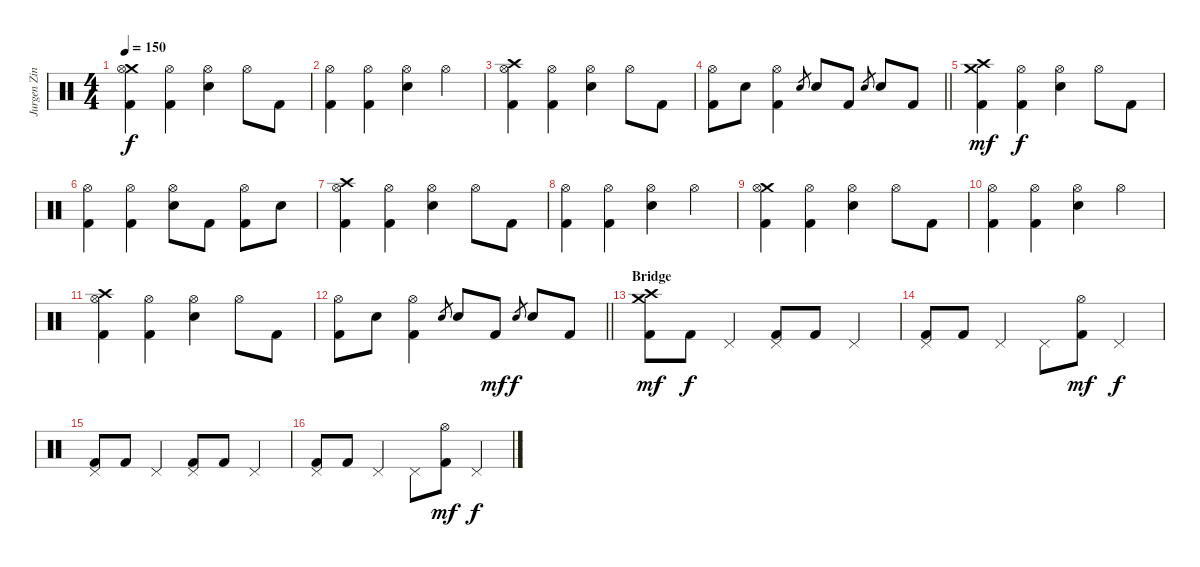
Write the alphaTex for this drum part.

\track ("Jurgen Zing" "Jurgen Zin") {instrument percussion}
\staff {score}
\articulation defaults
\ts (4 4)
\tempo 150
\clef neutral
\ks c
("Crash medium (hit)" "Hi-Hat (open)" "Kick (hit) 2").4{dy f} ("Hi-Hat (open)" "Kick (hit) 2").4 ("Hi-Hat (open)" "Electric Snare (hit)").4 "Hi-Hat (open)".8 "Kick (hit) 2".8 |
("Hi-Hat (open)" "Kick (hit) 2").4 ("Hi-Hat (open)" "Kick (hit) 2").4 ("Hi-Hat (open)" "Electric Snare (hit)").4 "Hi-Hat (open)".4 |
("Crash high (hit)" "Hi-Hat (open)" "Kick (hit) 2").4 ("Hi-Hat (open)" "Kick (hit) 2").4 ("Hi-Hat (open)" "Electric Snare (hit)").4 "Hi-Hat (open)".8 "Kick (hit) 2".8 |
\barLineRight lightlight
("Hi-Hat (open)" "Kick (hit) 2").8 "Electric Snare (hit)".8 ("Hi-Hat (open)" "Kick (hit) 2").4 "Electric Snare (hit)".8{gr} "Electric Snare (hit)".8 "Kick (hit) 2".8 "Electric Snare (hit)".8{gr} "Electric Snare (hit)".8 "Kick (hit) 2".8 |
("Crash medium (hit)" "Crash high (hit)" "Kick (hit) 2").4{dy mf} ("Hi-Hat (open)" "Kick (hit) 2").4{dy f} ("Hi-Hat (open)" "Electric Snare (hit)").4 "Hi-Hat (open)".8 "Kick (hit) 2".8 |
("Hi-Hat (open)" "Kick (hit) 2").4 ("Hi-Hat (open)" "Kick (hit) 2").4 ("Hi-Hat (open)" "Electric Snare (hit)").8 "Kick (hit) 2".8 ("Hi-Hat (open)" "Kick (hit) 2").8 "Electric Snare (hit)".8 |
("Crash high (hit)" "Hi-Hat (open)" "Kick (hit) 2").4 ("Hi-Hat (open)" "Kick (hit) 2").4 ("Hi-Hat (open)" "Electric Snare (hit)").4 "Hi-Hat (open)".8 "Kick (hit) 2".8 |
("Hi-Hat (open)" "Kick (hit) 2").4 ("Hi-Hat (open)" "Kick (hit) 2").4 ("Hi-Hat (open)" "Electric Snare (hit)").4 "Hi-Hat (open)".4 |
("Crash medium (hit)" "Hi-Hat (open)" "Kick (hit) 2").4 ("Hi-Hat (open)" "Kick (hit) 2").4 ("Hi-Hat (open)" "Electric Snare (hit)").4 "Hi-Hat (open)".8 "Kick (hit) 2".8 |
("Hi-Hat (open)" "Kick (hit) 2").4 ("Hi-Hat (open)" "Kick (hit) 2").4 ("Hi-Hat (open)" "Electric Snare (hit)").4 "Hi-Hat (open)".4 |
("Crash high (hit)" "Hi-Hat (open)" "Kick (hit) 2").4 ("Hi-Hat (open)" "Kick (hit) 2").4 ("Hi-Hat (open)" "Electric Snare (hit)").4 "Hi-Hat (open)".8 "Kick (hit) 2".8 |
\barLineRight lightlight
("Hi-Hat (open)" "Kick (hit) 2").8 "Electric Snare (hit)".8 ("Hi-Hat (open)" "Kick (hit) 2").4 "Electric Snare (hit)".8{gr} "Electric Snare (hit)".8 "Kick (hit) 2".8{dy mf} "Electric Snare (hit)".8{gr dy f} "Electric Snare (hit)".8 "Kick (hit) 2".8 |
\section ("" "Bridge")
("Crash medium (hit)" "Crash high (hit)" "Kick (hit) 2").8{dy mf} "Kick (hit) 2".8{dy f} "Pedal Hi-Hat (hit)".4 ("Pedal Hi-Hat (hit)" "Kick (hit) 2").8 "Kick (hit) 2".8 "Pedal Hi-Hat (hit)".4 |
("Pedal Hi-Hat (hit)" "Kick (hit) 2").8 "Kick (hit) 2".8 "Pedal Hi-Hat (hit)".4 "Pedal Hi-Hat (hit)".8 ("Hi-Hat (open)" "Kick (hit) 2").8{dy mf} "Pedal Hi-Hat (hit)".4{dy f} |
("Pedal Hi-Hat (hit)" "Kick (hit) 2").8 "Kick (hit) 2".8 "Pedal Hi-Hat (hit)".4 ("Pedal Hi-Hat (hit)" "Kick (hit) 2").8 "Kick (hit) 2".8 "Pedal Hi-Hat (hit)".4 |
("Pedal Hi-Hat (hit)" "Kick (hit) 2").8 "Kick (hit) 2".8 "Pedal Hi-Hat (hit)".4 "Pedal Hi-Hat (hit)".8 ("Hi-Hat (open)" "Kick (hit) 2").8{dy mf} "Pedal Hi-Hat (hit)".4{dy f}
